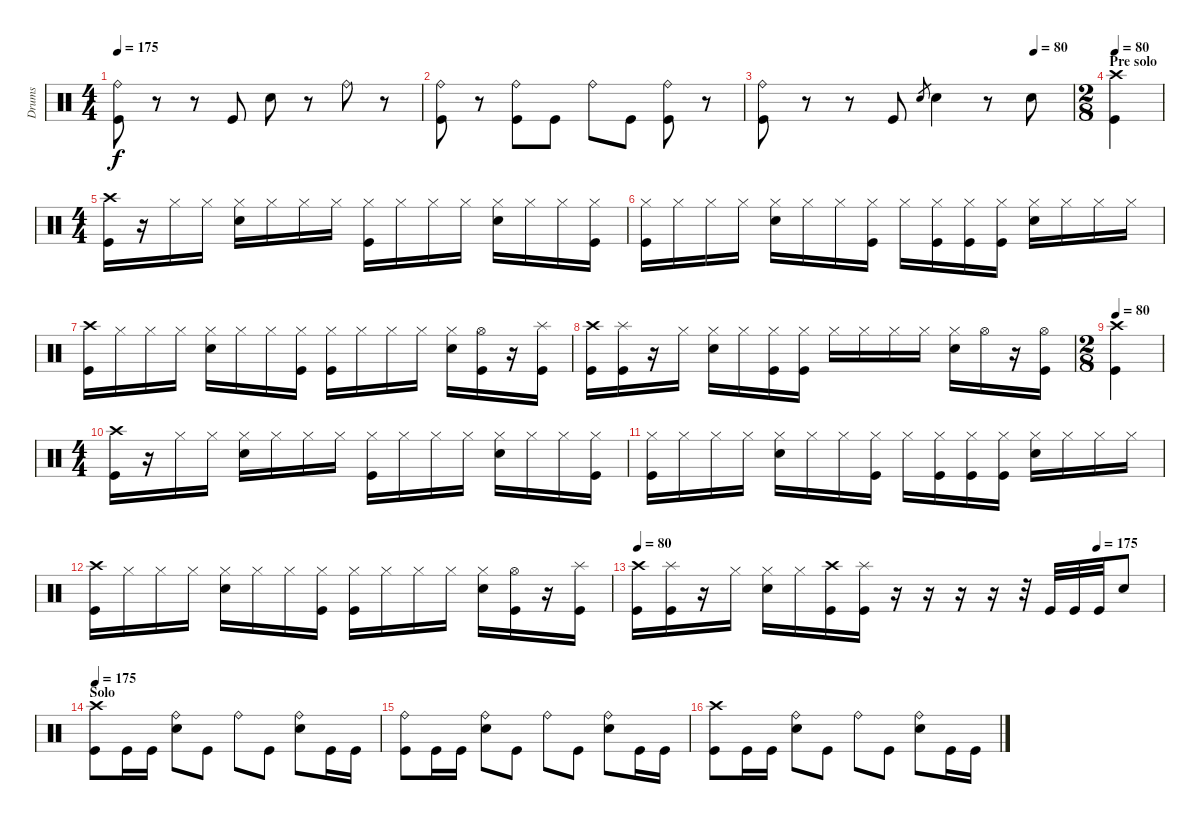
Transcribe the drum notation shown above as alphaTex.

\track ("Drums" "Drums") {instrument percussion}
\staff {score}
\articulation defaults
\ts (4 4)
\tempo 175
\clef neutral
\ks c
("Ride (bell)" "Kick (hit)").8{dy f} r.8 r.8 "Kick (hit)".8 "Electric Snare (hit)".8 r.8 "Ride (bell)".8 r.8 |
("Ride (bell)" "Kick (hit)").8 r.8 ("Ride (bell)" "Kick (hit)").8 "Kick (hit)".8 "Ride (bell)".8 "Kick (hit)".8 ("Ride (bell)" "Kick (hit)").8 r.8 |
\tempo (80 0.875)
("Ride (bell)" "Kick (hit)").8 r.8 r.8 "Kick (hit)".8 "Electric Snare (hit)".8{gr} "Electric Snare (hit)".4 r.8 "Electric Snare (hit)".8 |
\ts (2 8)
\section ("" "Pre solo")
\tempo 80
("Crash high (hit)" "Kick (hit)").4 |
\ts (4 4)
("Crash high (hit)" "Kick (hit)").16 r.16 "Hi-Hat (closed)".16 "Hi-Hat (closed)".16 ("Hi-Hat (closed)" "Electric Snare (hit)").16 "Hi-Hat (closed)".16 "Hi-Hat (closed)".16 "Hi-Hat (closed)".16 ("Hi-Hat (closed)" "Kick (hit)").16 "Hi-Hat (closed)".16 "Hi-Hat (closed)".16 "Hi-Hat (closed)".16 ("Hi-Hat (closed)" "Electric Snare (hit)").16 "Hi-Hat (closed)".16 "Hi-Hat (closed)".16 ("Hi-Hat (closed)" "Kick (hit)").16 |
("Hi-Hat (closed)" "Kick (hit)").16 "Hi-Hat (closed)".16 "Hi-Hat (closed)".16 "Hi-Hat (closed)".16 ("Hi-Hat (closed)" "Electric Snare (hit)").16 "Hi-Hat (closed)".16 "Hi-Hat (closed)".16 ("Hi-Hat (closed)" "Kick (hit)").16 "Hi-Hat (closed)".16 ("Hi-Hat (closed)" "Kick (hit)").16 ("Hi-Hat (closed)" "Kick (hit)").16 ("Hi-Hat (closed)" "Kick (hit)").16 ("Hi-Hat (closed)" "Electric Snare (hit)").16 "Hi-Hat (closed)".16 "Hi-Hat (closed)".16 "Hi-Hat (closed)".16 |
("Crash high (hit)" "Kick (hit)").16 "Hi-Hat (closed)".16 "Hi-Hat (closed)".16 "Hi-Hat (closed)".16 ("Hi-Hat (closed)" "Electric Snare (hit)").16 "Hi-Hat (closed)".16 "Hi-Hat (closed)".16 ("Hi-Hat (closed)" "Kick (hit)").16 ("Hi-Hat (closed)" "Kick (hit)").16 "Hi-Hat (closed)".16 "Hi-Hat (closed)".16 "Hi-Hat (closed)".16 ("Hi-Hat (closed)" "Electric Snare (hit)").16 ("Hi-Hat (open)" "Kick (hit)").16 r.16 ("Splash (hit)" "Kick (hit)").16 |
("Crash high (hit)" "Kick (hit)").16 ("Splash (hit)" "Kick (hit)").16 r.16 "Hi-Hat (closed)".16 ("Hi-Hat (closed)" "Electric Snare (hit)").16 "Hi-Hat (closed)".16 ("Hi-Hat (closed)" "Kick (hit)").16 ("Hi-Hat (closed)" "Kick (hit)").16 "Hi-Hat (closed)".16 "Hi-Hat (closed)".16 "Hi-Hat (closed)".16 "Hi-Hat (closed)".16 ("Hi-Hat (closed)" "Electric Snare (hit)").16 "Hi-Hat (open)".16 r.16 ("Hi-Hat (open)" "Kick (hit)").16 |
\ts (2 8)
\tempo 80
("Crash high (hit)" "Kick (hit)").4 |
\ts (4 4)
("Crash high (hit)" "Kick (hit)").16 r.16 "Hi-Hat (closed)".16 "Hi-Hat (closed)".16 ("Hi-Hat (closed)" "Electric Snare (hit)").16 "Hi-Hat (closed)".16 "Hi-Hat (closed)".16 "Hi-Hat (closed)".16 ("Hi-Hat (closed)" "Kick (hit)").16 "Hi-Hat (closed)".16 "Hi-Hat (closed)".16 "Hi-Hat (closed)".16 ("Hi-Hat (closed)" "Electric Snare (hit)").16 "Hi-Hat (closed)".16 "Hi-Hat (closed)".16 ("Hi-Hat (closed)" "Kick (hit)").16 |
("Hi-Hat (closed)" "Kick (hit)").16 "Hi-Hat (closed)".16 "Hi-Hat (closed)".16 "Hi-Hat (closed)".16 ("Hi-Hat (closed)" "Electric Snare (hit)").16 "Hi-Hat (closed)".16 "Hi-Hat (closed)".16 ("Hi-Hat (closed)" "Kick (hit)").16 "Hi-Hat (closed)".16 ("Hi-Hat (closed)" "Kick (hit)").16 ("Hi-Hat (closed)" "Kick (hit)").16 ("Hi-Hat (closed)" "Kick (hit)").16 ("Hi-Hat (closed)" "Electric Snare (hit)").16 "Hi-Hat (closed)".16 "Hi-Hat (closed)".16 "Hi-Hat (closed)".16 |
("Crash high (hit)" "Kick (hit)").16 "Hi-Hat (closed)".16 "Hi-Hat (closed)".16 "Hi-Hat (closed)".16 ("Hi-Hat (closed)" "Electric Snare (hit)").16 "Hi-Hat (closed)".16 "Hi-Hat (closed)".16 ("Hi-Hat (closed)" "Kick (hit)").16 ("Hi-Hat (closed)" "Kick (hit)").16 "Hi-Hat (closed)".16 "Hi-Hat (closed)".16 "Hi-Hat (closed)".16 ("Hi-Hat (closed)" "Electric Snare (hit)").16 ("Hi-Hat (open)" "Kick (hit)").16 r.16 ("Splash (hit)" "Kick (hit)").16 |
\tempo 80
\tempo (175 0.875)
("Crash high (hit)" "Kick (hit)").16 ("Splash (hit)" "Kick (hit)").16 r.16 "Hi-Hat (closed)".16 ("Hi-Hat (closed)" "Electric Snare (hit)").16 "Hi-Hat (closed)".16 ("Crash high (hit)" "Kick (hit)").16 ("Splash (hit)" "Kick (hit)").16 r.16 r.16 r.16 r.16 r.32 "Kick (hit)".32 "Kick (hit)".32 "Kick (hit)".32 "Electric Snare (hit)".8 |
\section ("" "Solo")
\tempo 175
("Crash high (hit)" "Kick (hit)").8 "Kick (hit)".16 "Kick (hit)".16 ("Ride (bell)" "Electric Snare (hit)").8 "Kick (hit)".8 "Ride (bell)".8 "Kick (hit)".8 ("Ride (bell)" "Electric Snare (hit)").8 "Kick (hit)".16 "Kick (hit)".16 |
("Ride (bell)" "Kick (hit)").8 "Kick (hit)".16 "Kick (hit)".16 ("Ride (bell)" "Electric Snare (hit)").8 "Kick (hit)".8 "Ride (bell)".8 "Kick (hit)".8 ("Ride (bell)" "Electric Snare (hit)").8 "Kick (hit)".16 "Kick (hit)".16 |
("Crash high (hit)" "Kick (hit)").8 "Kick (hit)".16 "Kick (hit)".16 ("Ride (bell)" "Electric Snare (hit)").8 "Kick (hit)".8 "Ride (bell)".8 "Kick (hit)".8 ("Ride (bell)" "Electric Snare (hit)").8 "Kick (hit)".16 "Kick (hit)".16
